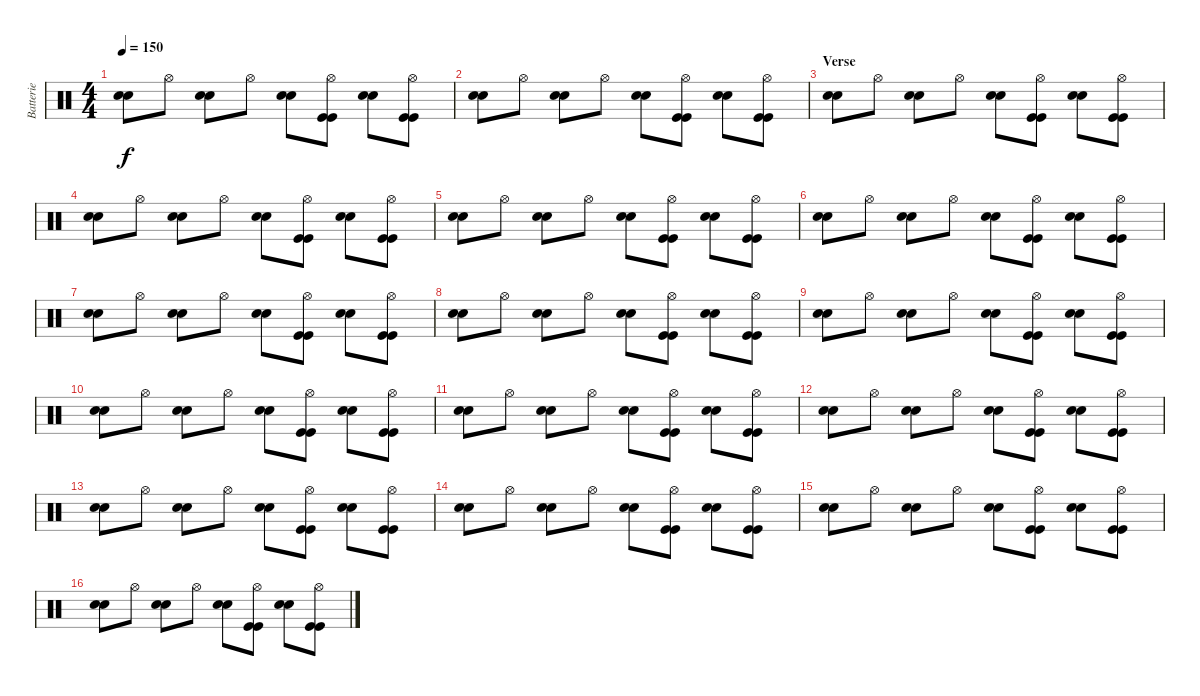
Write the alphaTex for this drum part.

\track ("Batterie" "Batterie") {instrument percussion}
\staff {score}
\articulation defaults
\ts (4 4)
\tempo 150
\clef neutral
\ks c
("Electric Snare (hit)" "Electric Snare (hit)").8{dy f} "Hi-Hat (open)".8 ("Electric Snare (hit)" "Electric Snare (hit)").8 "Hi-Hat (open)".8 ("Electric Snare (hit)" "Electric Snare (hit)").8 ("Hi-Hat (open)" "Kick (hit)" "Kick (hit)").8 ("Electric Snare (hit)" "Electric Snare (hit)").8 ("Hi-Hat (open)" "Kick (hit)" "Kick (hit)").8 |
("Electric Snare (hit)" "Electric Snare (hit)").8 "Hi-Hat (open)".8 ("Electric Snare (hit)" "Electric Snare (hit)").8 "Hi-Hat (open)".8 ("Electric Snare (hit)" "Electric Snare (hit)").8 ("Hi-Hat (open)" "Kick (hit)" "Kick (hit)").8 ("Electric Snare (hit)" "Electric Snare (hit)").8 ("Hi-Hat (open)" "Kick (hit)" "Kick (hit)").8 |
\section ("" "Verse")
("Electric Snare (hit)" "Electric Snare (hit)").8 "Hi-Hat (open)".8 ("Electric Snare (hit)" "Electric Snare (hit)").8 "Hi-Hat (open)".8 ("Electric Snare (hit)" "Electric Snare (hit)").8 ("Hi-Hat (open)" "Kick (hit)" "Kick (hit)").8 ("Electric Snare (hit)" "Electric Snare (hit)").8 ("Hi-Hat (open)" "Kick (hit)" "Kick (hit)").8 |
("Electric Snare (hit)" "Electric Snare (hit)").8 "Hi-Hat (open)".8 ("Electric Snare (hit)" "Electric Snare (hit)").8 "Hi-Hat (open)".8 ("Electric Snare (hit)" "Electric Snare (hit)").8 ("Hi-Hat (open)" "Kick (hit)" "Kick (hit)").8 ("Electric Snare (hit)" "Electric Snare (hit)").8 ("Hi-Hat (open)" "Kick (hit)" "Kick (hit)").8 |
("Electric Snare (hit)" "Electric Snare (hit)").8 "Hi-Hat (open)".8 ("Electric Snare (hit)" "Electric Snare (hit)").8 "Hi-Hat (open)".8 ("Electric Snare (hit)" "Electric Snare (hit)").8 ("Hi-Hat (open)" "Kick (hit)" "Kick (hit)").8 ("Electric Snare (hit)" "Electric Snare (hit)").8 ("Hi-Hat (open)" "Kick (hit)" "Kick (hit)").8 |
("Electric Snare (hit)" "Electric Snare (hit)").8 "Hi-Hat (open)".8 ("Electric Snare (hit)" "Electric Snare (hit)").8 "Hi-Hat (open)".8 ("Electric Snare (hit)" "Electric Snare (hit)").8 ("Hi-Hat (open)" "Kick (hit)" "Kick (hit)").8 ("Electric Snare (hit)" "Electric Snare (hit)").8 ("Hi-Hat (open)" "Kick (hit)" "Kick (hit)").8 |
("Electric Snare (hit)" "Electric Snare (hit)").8 "Hi-Hat (open)".8 ("Electric Snare (hit)" "Electric Snare (hit)").8 "Hi-Hat (open)".8 ("Electric Snare (hit)" "Electric Snare (hit)").8 ("Hi-Hat (open)" "Kick (hit)" "Kick (hit)").8 ("Electric Snare (hit)" "Electric Snare (hit)").8 ("Hi-Hat (open)" "Kick (hit)" "Kick (hit)").8 |
("Electric Snare (hit)" "Electric Snare (hit)").8 "Hi-Hat (open)".8 ("Electric Snare (hit)" "Electric Snare (hit)").8 "Hi-Hat (open)".8 ("Electric Snare (hit)" "Electric Snare (hit)").8 ("Hi-Hat (open)" "Kick (hit)" "Kick (hit)").8 ("Electric Snare (hit)" "Electric Snare (hit)").8 ("Hi-Hat (open)" "Kick (hit)" "Kick (hit)").8 |
("Electric Snare (hit)" "Electric Snare (hit)").8 "Hi-Hat (open)".8 ("Electric Snare (hit)" "Electric Snare (hit)").8 "Hi-Hat (open)".8 ("Electric Snare (hit)" "Electric Snare (hit)").8 ("Hi-Hat (open)" "Kick (hit)" "Kick (hit)").8 ("Electric Snare (hit)" "Electric Snare (hit)").8 ("Hi-Hat (open)" "Kick (hit)" "Kick (hit)").8 |
("Electric Snare (hit)" "Electric Snare (hit)").8 "Hi-Hat (open)".8 ("Electric Snare (hit)" "Electric Snare (hit)").8 "Hi-Hat (open)".8 ("Electric Snare (hit)" "Electric Snare (hit)").8 ("Hi-Hat (open)" "Kick (hit)" "Kick (hit)").8 ("Electric Snare (hit)" "Electric Snare (hit)").8 ("Hi-Hat (open)" "Kick (hit)" "Kick (hit)").8 |
("Electric Snare (hit)" "Electric Snare (hit)").8 "Hi-Hat (open)".8 ("Electric Snare (hit)" "Electric Snare (hit)").8 "Hi-Hat (open)".8 ("Electric Snare (hit)" "Electric Snare (hit)").8 ("Hi-Hat (open)" "Kick (hit)" "Kick (hit)").8 ("Electric Snare (hit)" "Electric Snare (hit)").8 ("Hi-Hat (open)" "Kick (hit)" "Kick (hit)").8 |
("Electric Snare (hit)" "Electric Snare (hit)").8 "Hi-Hat (open)".8 ("Electric Snare (hit)" "Electric Snare (hit)").8 "Hi-Hat (open)".8 ("Electric Snare (hit)" "Electric Snare (hit)").8 ("Hi-Hat (open)" "Kick (hit)" "Kick (hit)").8 ("Electric Snare (hit)" "Electric Snare (hit)").8 ("Hi-Hat (open)" "Kick (hit)" "Kick (hit)").8 |
("Electric Snare (hit)" "Electric Snare (hit)").8 "Hi-Hat (open)".8 ("Electric Snare (hit)" "Electric Snare (hit)").8 "Hi-Hat (open)".8 ("Electric Snare (hit)" "Electric Snare (hit)").8 ("Hi-Hat (open)" "Kick (hit)" "Kick (hit)").8 ("Electric Snare (hit)" "Electric Snare (hit)").8 ("Hi-Hat (open)" "Kick (hit)" "Kick (hit)").8 |
("Electric Snare (hit)" "Electric Snare (hit)").8 "Hi-Hat (open)".8 ("Electric Snare (hit)" "Electric Snare (hit)").8 "Hi-Hat (open)".8 ("Electric Snare (hit)" "Electric Snare (hit)").8 ("Hi-Hat (open)" "Kick (hit)" "Kick (hit)").8 ("Electric Snare (hit)" "Electric Snare (hit)").8 ("Hi-Hat (open)" "Kick (hit)" "Kick (hit)").8 |
("Electric Snare (hit)" "Electric Snare (hit)").8 "Hi-Hat (open)".8 ("Electric Snare (hit)" "Electric Snare (hit)").8 "Hi-Hat (open)".8 ("Electric Snare (hit)" "Electric Snare (hit)").8 ("Hi-Hat (open)" "Kick (hit)" "Kick (hit)").8 ("Electric Snare (hit)" "Electric Snare (hit)").8 ("Hi-Hat (open)" "Kick (hit)" "Kick (hit)").8 |
("Electric Snare (hit)" "Electric Snare (hit)").8 "Hi-Hat (open)".8 ("Electric Snare (hit)" "Electric Snare (hit)").8 "Hi-Hat (open)".8 ("Electric Snare (hit)" "Electric Snare (hit)").8 ("Hi-Hat (open)" "Kick (hit)" "Kick (hit)").8 ("Electric Snare (hit)" "Electric Snare (hit)").8 ("Hi-Hat (open)" "Kick (hit)" "Kick (hit)").8
